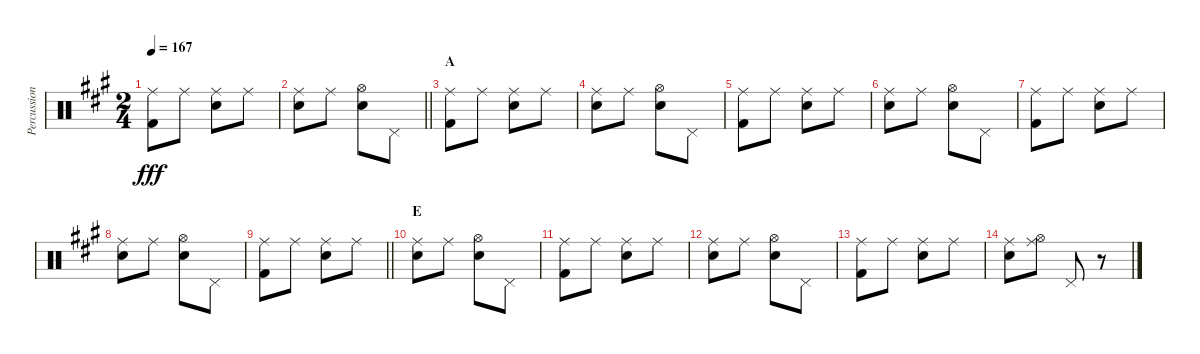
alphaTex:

\track ("Percussion" "Percussion") {instrument percussion}
\staff {score}
\articulation defaults
\ts (2 4)
\tempo 167
\clef neutral
\ks a
("Ride (middle)" "Kick (hit) 2").8{dy fff} "Ride (middle)".8 ("Ride (middle)" "Snare (hit) 2").8 "Ride (middle)".8 |
\barLineRight lightlight
("Ride (middle)" "Snare (hit) 2").8 "Ride (middle)".8 ("Hi-Hat (open)" "Snare (hit) 2").8 "Pedal Hi-Hat (hit)".8 |
\section ("" "A")
("Ride (middle)" "Kick (hit) 2").8 "Ride (middle)".8 ("Ride (middle)" "Snare (hit) 2").8 "Ride (middle)".8 |
("Ride (middle)" "Snare (hit) 2").8 "Ride (middle)".8 ("Hi-Hat (open)" "Snare (hit) 2").8 "Pedal Hi-Hat (hit)".8 |
("Ride (middle)" "Kick (hit) 2").8 "Ride (middle)".8 ("Ride (middle)" "Snare (hit) 2").8 "Ride (middle)".8 |
("Ride (middle)" "Snare (hit) 2").8 "Ride (middle)".8 ("Hi-Hat (open)" "Snare (hit) 2").8 "Pedal Hi-Hat (hit)".8 |
("Ride (middle)" "Kick (hit) 2").8 "Ride (middle)".8 ("Ride (middle)" "Snare (hit) 2").8 "Ride (middle)".8 |
("Ride (middle)" "Snare (hit) 2").8 "Ride (middle)".8 ("Hi-Hat (open)" "Snare (hit) 2").8 "Pedal Hi-Hat (hit)".8 |
\barLineRight lightlight
("Ride (middle)" "Kick (hit) 2").8 "Ride (middle)".8 ("Ride (middle)" "Snare (hit) 2").8 "Ride (middle)".8 |
\section ("" "E")
("Ride (middle)" "Snare (hit) 2").8 "Ride (middle)".8 ("Hi-Hat (open)" "Snare (hit) 2").8 "Pedal Hi-Hat (hit)".8 |
("Ride (middle)" "Kick (hit) 2").8 "Ride (middle)".8 ("Ride (middle)" "Snare (hit) 2").8 "Ride (middle)".8 |
("Ride (middle)" "Snare (hit) 2").8 "Ride (middle)".8 ("Hi-Hat (open)" "Snare (hit) 2").8 "Pedal Hi-Hat (hit)".8 |
("Ride (middle)" "Kick (hit) 2").8 "Ride (middle)".8 ("Ride (middle)" "Snare (hit) 2").8 "Ride (middle)".8 |
("Ride (middle)" "Snare (hit) 2").8 ("Ride (middle)" "Hi-Hat (open)").8 "Pedal Hi-Hat (hit)".8 r.8
